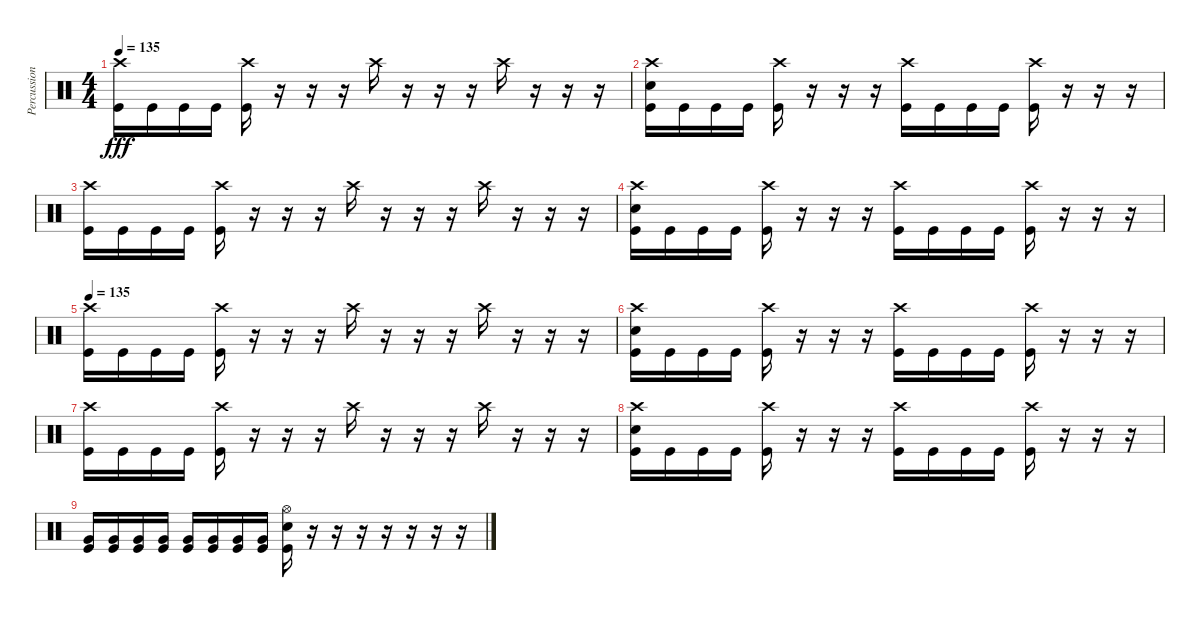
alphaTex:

\track ("Percussion" "Percussion") {instrument percussion}
\staff {score}
\articulation defaults
\ts (4 4)
\tempo 135
\clef neutral
\ks c
("Crash high (hit)" "Kick (hit)").16{dy fff} "Kick (hit)".16 "Kick (hit)".16 "Kick (hit)".16 ("Crash high (hit)" "Kick (hit)").16 r.16 r.16 r.16 "Crash high (hit)".16 r.16 r.16 r.16 "Crash high (hit)".16 r.16 r.16 r.16 |
("Crash high (hit)" "Electric Snare (hit)" "Kick (hit)").16 "Kick (hit)".16 "Kick (hit)".16 "Kick (hit)".16 ("Crash high (hit)" "Kick (hit)").16 r.16 r.16 r.16 ("Crash high (hit)" "Kick (hit)").16 "Kick (hit)".16 "Kick (hit)".16 "Kick (hit)".16 ("Crash high (hit)" "Kick (hit)").16 r.16 r.16 r.16 |
("Crash high (hit)" "Kick (hit)").16 "Kick (hit)".16 "Kick (hit)".16 "Kick (hit)".16 ("Crash high (hit)" "Kick (hit)").16 r.16 r.16 r.16 "Crash high (hit)".16 r.16 r.16 r.16 "Crash high (hit)".16 r.16 r.16 r.16 |
("Crash high (hit)" "Electric Snare (hit)" "Kick (hit)").16 "Kick (hit)".16 "Kick (hit)".16 "Kick (hit)".16 ("Crash high (hit)" "Kick (hit)").16 r.16 r.16 r.16 ("Crash high (hit)" "Kick (hit)").16 "Kick (hit)".16 "Kick (hit)".16 "Kick (hit)".16 ("Crash high (hit)" "Kick (hit)").16 r.16 r.16 r.16 |
\tempo 135
("Crash high (hit)" "Kick (hit)").16 "Kick (hit)".16 "Kick (hit)".16 "Kick (hit)".16 ("Crash high (hit)" "Kick (hit)").16 r.16 r.16 r.16 "Crash high (hit)".16 r.16 r.16 r.16 "Crash high (hit)".16 r.16 r.16 r.16 |
("Crash high (hit)" "Electric Snare (hit)" "Kick (hit)").16 "Kick (hit)".16 "Kick (hit)".16 "Kick (hit)".16 ("Crash high (hit)" "Kick (hit)").16 r.16 r.16 r.16 ("Crash high (hit)" "Kick (hit)").16 "Kick (hit)".16 "Kick (hit)".16 "Kick (hit)".16 ("Crash high (hit)" "Kick (hit)").16 r.16 r.16 r.16 |
("Crash high (hit)" "Kick (hit)").16 "Kick (hit)".16 "Kick (hit)".16 "Kick (hit)".16 ("Crash high (hit)" "Kick (hit)").16 r.16 r.16 r.16 "Crash high (hit)".16 r.16 r.16 r.16 "Crash high (hit)".16 r.16 r.16 r.16 |
("Crash high (hit)" "Electric Snare (hit)" "Kick (hit)").16 "Kick (hit)".16 "Kick (hit)".16 "Kick (hit)".16 ("Crash high (hit)" "Kick (hit)").16 r.16 r.16 r.16 ("Crash high (hit)" "Kick (hit)").16 "Kick (hit)".16 "Kick (hit)".16 "Kick (hit)".16 ("Crash high (hit)" "Kick (hit)").16 r.16 r.16 r.16 |
("Very Low Tom (hit)" "Kick (hit)").16 ("Very Low Tom (hit)" "Kick (hit)").16 ("Very Low Tom (hit)" "Kick (hit)").16 ("Very Low Tom (hit)" "Kick (hit)").16 ("Very Low Tom (hit)" "Kick (hit)").16 ("Very Low Tom (hit)" "Kick (hit)").16 ("Very Low Tom (hit)" "Kick (hit)").16 ("Very Low Tom (hit)" "Kick (hit)").16 ("Hi-Hat (open)" "Electric Snare (hit)" "Kick (hit)").16 r.16 r.16 r.16 r.16 r.16 r.16 r.16
